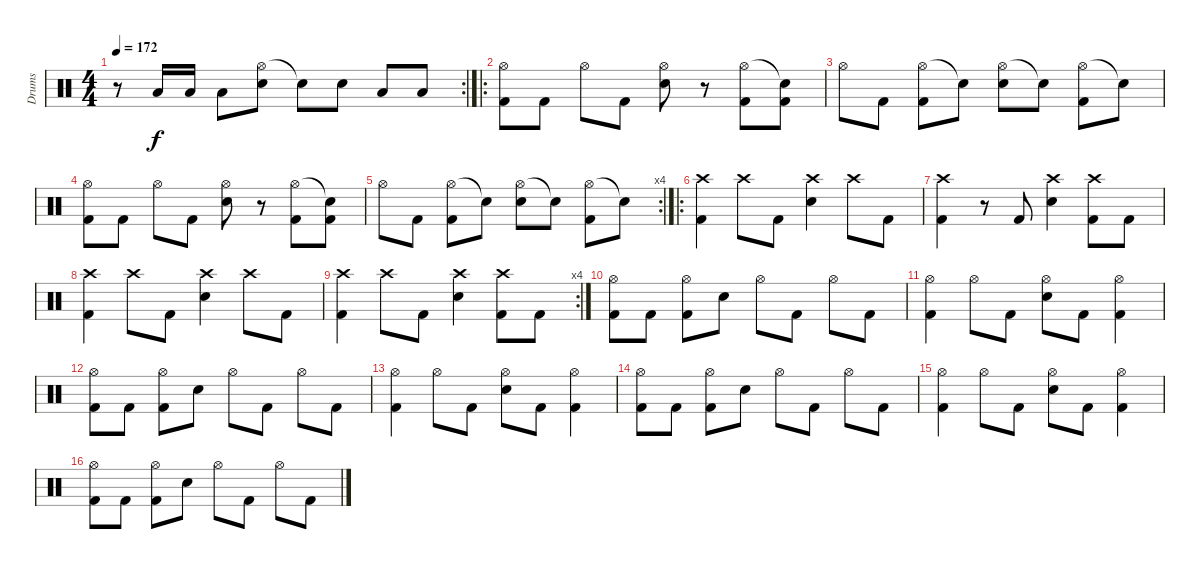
\track ("Drums" "Drums") {instrument percussion}
\staff {score}
\articulation defaults
\rc 2
\ts (4 4)
\tempo 172
\clef neutral
\ks c
r.8{dy f} "Low Floor Tom (hit)".16 "Low Floor Tom (hit)".16 "Low Floor Tom (hit)".8 ("Hi-Hat (open)" "Electric Snare (hit)").8 "Electric Snare (hit)"{t}.8 "Electric Snare (hit)".8 "Low Tom (hit)".8 "Low Floor Tom (hit)".8 |
\ro
("Hi-Hat (open)" "Kick (hit) 2").8 "Kick (hit) 2".8 "Hi-Hat (open)".8 "Kick (hit) 2".8 ("Hi-Hat (open)" "Electric Snare (hit)").8 r.8 ("Hi-Hat (open)" "Kick (hit) 2").8 ("Snare (hit)"{t} "Kick (hit) 2").8 |
"Hi-Hat (open)".8 "Kick (hit) 2".8 ("Hi-Hat (open)" "Kick (hit) 2").8 "Snare (hit)"{t}.8 ("Hi-Hat (open)" "Electric Snare (hit)").8 "Snare (hit)"{t}.8 ("Hi-Hat (open)" "Kick (hit) 2").8 "Snare (hit)"{t}.8 |
("Hi-Hat (open)" "Kick (hit) 2").8 "Kick (hit) 2".8 "Hi-Hat (open)".8 "Kick (hit) 2".8 ("Hi-Hat (open)" "Electric Snare (hit)").8 r.8 ("Hi-Hat (open)" "Kick (hit) 2").8 ("Snare (hit)"{t} "Kick (hit) 2").8 |
\rc 4 "Hi-Hat (open)".8 "Kick (hit) 2".8
("Hi-Hat (open)" "Kick (hit) 2").8 "Snare (hit)"{t}.8 ("Hi-Hat (open)" "Electric Snare (hit)").8 "Snare (hit)"{t}.8 ("Hi-Hat (open)" "Kick (hit) 2").8 "Snare (hit)"{t}.8 |
\ro
("Crash high (hit)" "Kick (hit) 2").4 "Crash high (hit)".8 "Kick (hit) 2".8 ("Crash high (hit)" "Electric Snare (hit)").4 "Crash high (hit)".8 "Kick (hit) 2".8 |
("Crash high (hit)" "Kick (hit) 2").4 r.8 "Kick (hit) 2".8 ("Crash high (hit)" "Electric Snare (hit)").4 ("Crash high (hit)" "Kick (hit) 2").8 "Kick (hit) 2".8 |
("Crash high (hit)" "Kick (hit) 2").4 "Crash high (hit)".8 "Kick (hit) 2".8 ("Crash high (hit)" "Electric Snare (hit)").4 "Crash high (hit)".8 "Kick (hit) 2".8 |
\rc 4
("Crash high (hit)" "Kick (hit) 2").4 "Crash high (hit)".8 "Kick (hit) 2".8 ("Crash high (hit)" "Electric Snare (hit)").4 ("Crash high (hit)" "Kick (hit) 2").8 "Kick (hit) 2".8 |
("Hi-Hat (open)" "Kick (hit) 2").8 "Kick (hit) 2".8 ("Hi-Hat (open)" "Kick (hit) 2").8 "Electric Snare (hit)".8 "Hi-Hat (open)".8 "Kick (hit) 2".8 "Hi-Hat (open)".8 "Kick (hit) 2".8 |
("Hi-Hat (open)" "Kick (hit) 2").4 "Hi-Hat (open)".8 "Kick (hit) 2".8 ("Hi-Hat (open)" "Electric Snare (hit)").8 "Kick (hit) 2".8 ("Hi-Hat (open)" "Kick (hit) 2").4 |
("Hi-Hat (open)" "Kick (hit) 2").8 "Kick (hit) 2".8 ("Hi-Hat (open)" "Kick (hit) 2").8 "Electric Snare (hit)".8 "Hi-Hat (open)".8 "Kick (hit) 2".8 "Hi-Hat (open)".8 "Kick (hit) 2".8 |
("Hi-Hat (open)" "Kick (hit) 2").4 "Hi-Hat (open)".8 "Kick (hit) 2".8 ("Hi-Hat (open)" "Electric Snare (hit)").8 "Kick (hit) 2".8 ("Hi-Hat (open)" "Kick (hit) 2").4 |
("Hi-Hat (open)" "Kick (hit) 2").8 "Kick (hit) 2".8 ("Hi-Hat (open)" "Kick (hit) 2").8 "Electric Snare (hit)".8 "Hi-Hat (open)".8 "Kick (hit) 2".8 "Hi-Hat (open)".8 "Kick (hit) 2".8 |
("Hi-Hat (open)" "Kick (hit) 2").4 "Hi-Hat (open)".8 "Kick (hit) 2".8 ("Hi-Hat (open)" "Electric Snare (hit)").8 "Kick (hit) 2".8 ("Hi-Hat (open)" "Kick (hit) 2").4 |
("Hi-Hat (open)" "Kick (hit) 2").8 "Kick (hit) 2".8 ("Hi-Hat (open)" "Kick (hit) 2").8 "Electric Snare (hit)".8 "Hi-Hat (open)".8 "Kick (hit) 2".8 "Hi-Hat (open)".8 "Kick (hit) 2".8
